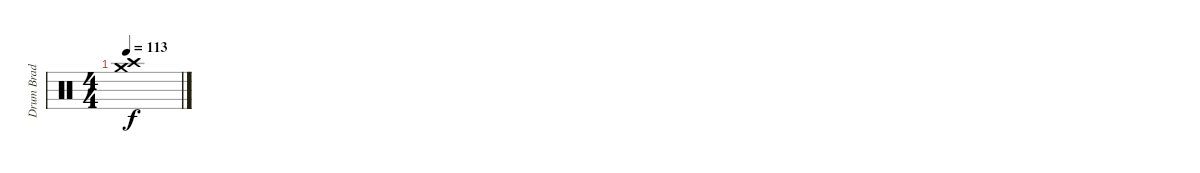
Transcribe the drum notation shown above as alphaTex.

\track ("Drum Brad Wilk" "Drum Brad ") {instrument percussion}
\staff {score}
\articulation defaults
\ts (4 4)
\tempo 113
\clef neutral
\ks c
("Crash medium (hit)" "Crash high (hit)").1{dy f}
